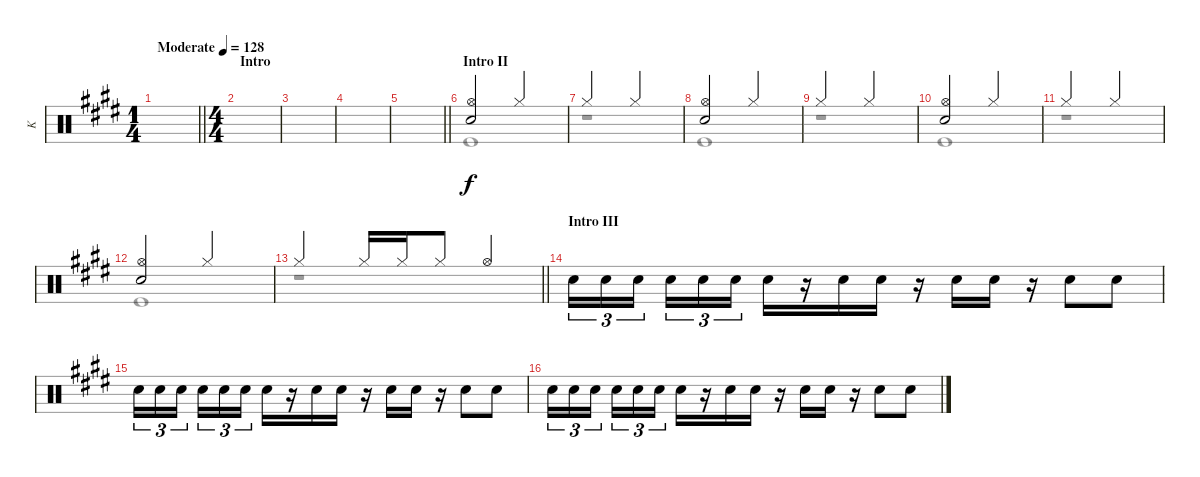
\track ("K" "K") {instrument percussion}
\staff {score}
\articulation defaults
\voice
\ts (1 4)
\tempo (128 "Moderate")
\clef neutral
\barLineRight lightlight
\ks e
|
\ts (4 4)
\section ("" "Intro")
|
|
|
\barLineRight lightlight
|
\section ("" "Intro II")
("Hi-Hat (open)" "Snare (hit) 2").2 "Hi-Hat (closed)".2 |
"Hi-Hat (closed)".2 "Hi-Hat (closed)".2 |
("Hi-Hat (open)" "Snare (hit) 2").2 "Hi-Hat (closed)".2 |
"Hi-Hat (closed)".2 "Hi-Hat (closed)".2 |
("Hi-Hat (open)" "Snare (hit) 2").2 "Hi-Hat (closed)".2 |
"Hi-Hat (closed)".2 "Hi-Hat (closed)".2 |
("Hi-Hat (open)" "Snare (hit) 2").2 "Hi-Hat (closed)".2 |
\barLineRight lightlight "Hi-Hat (closed)".2 "Hi-Hat (closed)".16 "Hi-Hat (closed)".16 "Hi-Hat (closed)".8 "Hi-Hat (open)".4
|
\section ("" "Intro III")
"Snare (hit) 2".16{tu (3 2)} "Snare (hit) 2".16{tu (3 2)} "Snare (hit) 2".16{tu (3 2) beam splitsecondary} "Snare (hit) 2".16{tu (3 2)} "Snare (hit) 2".16{tu (3 2)} "Snare (hit) 2".16{tu (3 2)} "Snare (hit) 2".16 r.16 "Snare (hit) 2".16 "Snare (hit) 2".16 r.16 "Snare (hit) 2".16 "Snare (hit) 2".16 r.16 "Snare (hit) 2".8 "Snare (hit) 2".8 |
"Snare (hit) 2".16{tu (3 2)} "Snare (hit) 2".16{tu (3 2)} "Snare (hit) 2".16{tu (3 2) beam splitsecondary} "Snare (hit) 2".16{tu (3 2)} "Snare (hit) 2".16{tu (3 2)} "Snare (hit) 2".16{tu (3 2)} "Snare (hit) 2".16 r.16 "Snare (hit) 2".16 "Snare (hit) 2".16 r.16 "Snare (hit) 2".16 "Snare (hit) 2".16 r.16 "Snare (hit) 2".8 "Snare (hit) 2".8 |
"Snare (hit) 2".16{tu (3 2)} "Snare (hit) 2".16{tu (3 2)} "Snare (hit) 2".16{tu (3 2) beam splitsecondary} "Snare (hit) 2".16{tu (3 2)} "Snare (hit) 2".16{tu (3 2)} "Snare (hit) 2".16{tu (3 2)} "Snare (hit) 2".16 r.16 "Snare (hit) 2".16 "Snare (hit) 2".16 r.16 "Snare (hit) 2".16 "Snare (hit) 2".16 r.16 "Snare (hit) 2".8 "Snare (hit) 2".8
\voice
\clef neutral
\ottava regular
\simile none
\barLineRight lightlight
\ks e
|
|
|
|
\barLineRight lightlight
|
"Kick (hit)".1 |
r.1 |
"Kick (hit)".1 |
r.1 |
"Kick (hit)".1 |
r.1 |
"Kick (hit)".1 |
\barLineRight lightlight
r.1 |
|
|
